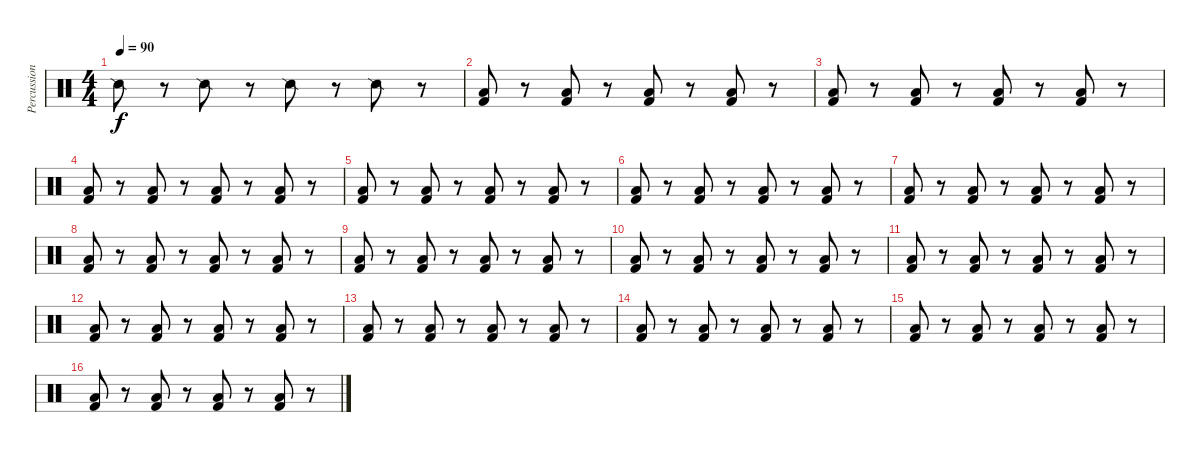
\track ("Percussion" "Percussion") {instrument percussion}
\staff {score}
\articulation defaults
\ts (4 4)
\tempo 90
\clef neutral
\ks c "Snare (side stick) 2".8{dy f}
r.8 "Snare (side stick) 2".8 r.8 "Snare (side stick) 2".8 r.8 "Snare (side stick) 2".8 r.8 |
("Low Floor Tom (hit)" "Kick (hit) 2").8 r.8 ("Low Floor Tom (hit)" "Kick (hit) 2").8 r.8 ("Low Floor Tom (hit)" "Kick (hit) 2").8 r.8 ("Low Floor Tom (hit)" "Kick (hit) 2").8 r.8 |
("Low Floor Tom (hit)" "Kick (hit) 2").8 r.8 ("Low Floor Tom (hit)" "Kick (hit) 2").8 r.8 ("Low Floor Tom (hit)" "Kick (hit) 2").8 r.8 ("Low Floor Tom (hit)" "Kick (hit) 2").8 r.8 |
("Low Floor Tom (hit)" "Kick (hit) 2").8 r.8 ("Low Floor Tom (hit)" "Kick (hit) 2").8 r.8 ("Low Floor Tom (hit)" "Kick (hit) 2").8 r.8 ("Low Floor Tom (hit)" "Kick (hit) 2").8 r.8 |
("Low Floor Tom (hit)" "Kick (hit) 2").8 r.8 ("Low Floor Tom (hit)" "Kick (hit) 2").8 r.8 ("Low Floor Tom (hit)" "Kick (hit) 2").8 r.8 ("Low Floor Tom (hit)" "Kick (hit) 2").8 r.8 |
("Low Floor Tom (hit)" "Kick (hit) 2").8 r.8 ("Low Floor Tom (hit)" "Kick (hit) 2").8 r.8 ("Low Floor Tom (hit)" "Kick (hit) 2").8 r.8 ("Low Floor Tom (hit)" "Kick (hit) 2").8 r.8 |
("Low Floor Tom (hit)" "Kick (hit) 2").8 r.8 ("Low Floor Tom (hit)" "Kick (hit) 2").8 r.8 ("Low Floor Tom (hit)" "Kick (hit) 2").8 r.8 ("Low Floor Tom (hit)" "Kick (hit) 2").8 r.8 |
("Low Floor Tom (hit)" "Kick (hit) 2").8 r.8 ("Low Floor Tom (hit)" "Kick (hit) 2").8 r.8 ("Low Floor Tom (hit)" "Kick (hit) 2").8 r.8 ("Low Floor Tom (hit)" "Kick (hit) 2").8 r.8 |
("Low Floor Tom (hit)" "Kick (hit) 2").8 r.8 ("Low Floor Tom (hit)" "Kick (hit) 2").8 r.8 ("Low Floor Tom (hit)" "Kick (hit) 2").8 r.8 ("Low Floor Tom (hit)" "Kick (hit) 2").8 r.8 |
("Low Floor Tom (hit)" "Kick (hit) 2").8 r.8 ("Low Floor Tom (hit)" "Kick (hit) 2").8 r.8 ("Low Floor Tom (hit)" "Kick (hit) 2").8 r.8 ("Low Floor Tom (hit)" "Kick (hit) 2").8 r.8 |
("Low Floor Tom (hit)" "Kick (hit) 2").8 r.8 ("Low Floor Tom (hit)" "Kick (hit) 2").8 r.8 ("Low Floor Tom (hit)" "Kick (hit) 2").8 r.8 ("Low Floor Tom (hit)" "Kick (hit) 2").8 r.8 |
("Low Floor Tom (hit)" "Kick (hit) 2").8 r.8 ("Low Floor Tom (hit)" "Kick (hit) 2").8 r.8 ("Low Floor Tom (hit)" "Kick (hit) 2").8 r.8 ("Low Floor Tom (hit)" "Kick (hit) 2").8 r.8 |
("Low Floor Tom (hit)" "Kick (hit) 2").8 r.8 ("Low Floor Tom (hit)" "Kick (hit) 2").8 r.8 ("Low Floor Tom (hit)" "Kick (hit) 2").8 r.8 ("Low Floor Tom (hit)" "Kick (hit) 2").8 r.8 |
("Low Floor Tom (hit)" "Kick (hit) 2").8 r.8 ("Low Floor Tom (hit)" "Kick (hit) 2").8 r.8 ("Low Floor Tom (hit)" "Kick (hit) 2").8 r.8 ("Low Floor Tom (hit)" "Kick (hit) 2").8 r.8 |
("Low Floor Tom (hit)" "Kick (hit) 2").8 r.8 ("Low Floor Tom (hit)" "Kick (hit) 2").8 r.8 ("Low Floor Tom (hit)" "Kick (hit) 2").8 r.8 ("Low Floor Tom (hit)" "Kick (hit) 2").8 r.8 |
("Low Floor Tom (hit)" "Kick (hit) 2").8 r.8 ("Low Floor Tom (hit)" "Kick (hit) 2").8 r.8 ("Low Floor Tom (hit)" "Kick (hit) 2").8 r.8 ("Low Floor Tom (hit)" "Kick (hit) 2").8 r.8
